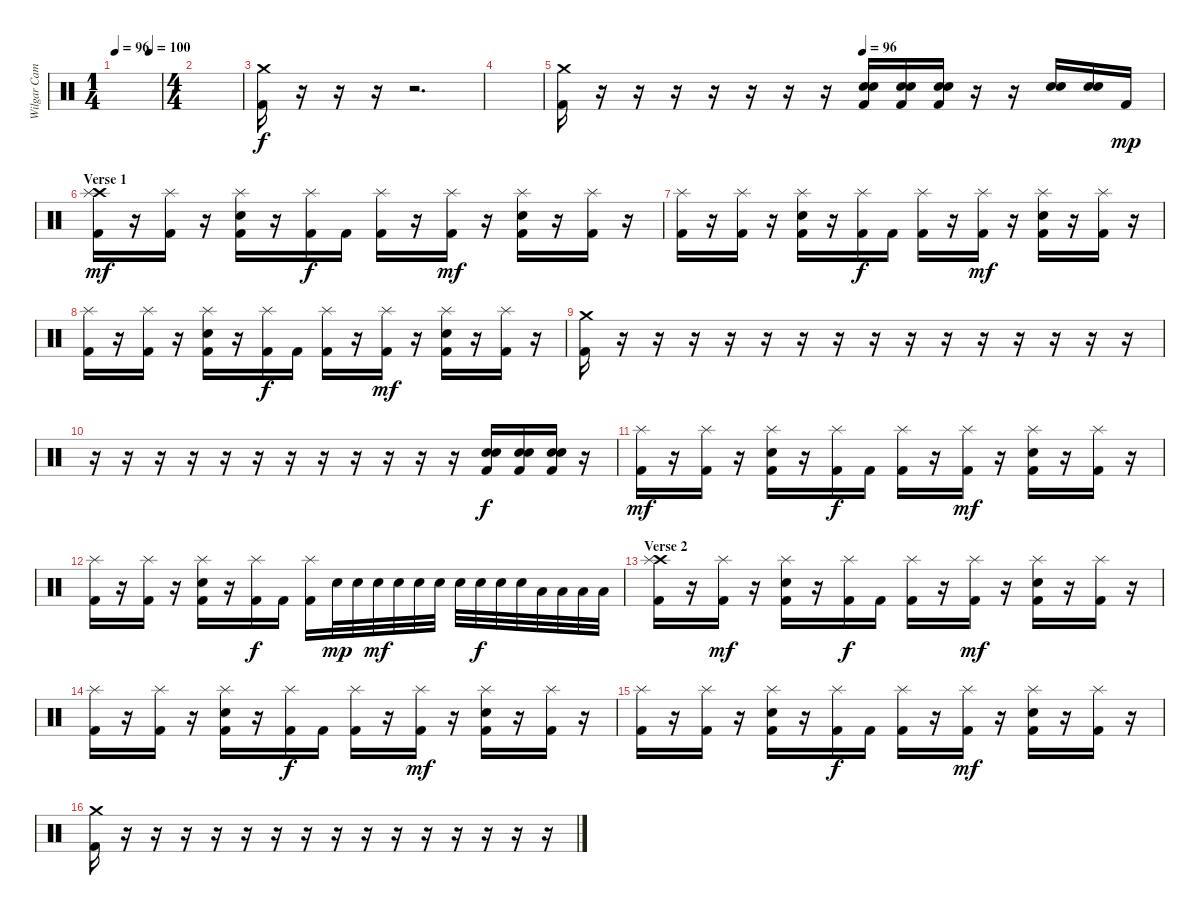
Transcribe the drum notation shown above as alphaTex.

\track ("Wilgar Campbell" "Wilgar Cam") {instrument percussion}
\staff {score}
\articulation defaults
\ts (1 4)
\tempo 96
\tempo (100 0.75)
\tempo 96
\clef neutral
\ks c
|
\ts (4 4)
|
("Crash medium (hit)" "Kick (hit) 2").16 r.16 r.16 r.16 r.2{d} |
|
\tempo (96 0.5)
("Crash medium (hit)" "Kick (hit) 2").16 r.16 r.16 r.16 r.16 r.16 r.16 r.16 ("Electric Snare (hit)" "Snare (hit) 2" "Kick (hit) 2").16{dy f} ("Electric Snare (hit)" "Snare (hit) 2" "Kick (hit) 2").16 ("Electric Snare (hit)" "Snare (hit) 2" "Kick (hit) 2").16 r.16 r.16 ("Electric Snare (hit)" "Electric Snare (hit)").16 ("Electric Snare (hit)" "Electric Snare (hit)").16 "Kick (hit) 2".16{dy mp} |
\section ("" "Verse 1")
("Crash high (hit)" "Splash (hit)" "Kick (hit) 2").16{dy mf} r.16 ("Splash (hit)" "Kick (hit) 2").16 r.16 ("Splash (hit)" "Snare (hit) 2" "Kick (hit) 2").16 r.16 ("Splash (hit)" "Kick (hit) 2").16{dy f} "Kick (hit) 2".16 ("Splash (hit)" "Kick (hit) 2").16 r.16 ("Splash (hit)" "Kick (hit) 2").16{dy mf} r.16 ("Splash (hit)" "Snare (hit) 2" "Kick (hit) 2").16 r.16 ("Splash (hit)" "Kick (hit) 2").16 r.16 |
("Splash (hit)" "Kick (hit) 2").16 r.16 ("Splash (hit)" "Kick (hit) 2").16 r.16 ("Splash (hit)" "Snare (hit) 2" "Kick (hit) 2").16 r.16 ("Splash (hit)" "Kick (hit) 2").16{dy f} "Kick (hit) 2".16 ("Splash (hit)" "Kick (hit) 2").16 r.16 ("Splash (hit)" "Kick (hit) 2").16{dy mf} r.16 ("Splash (hit)" "Snare (hit) 2" "Kick (hit) 2").16 r.16 ("Splash (hit)" "Kick (hit) 2").16 r.16 |
("Splash (hit)" "Kick (hit) 2").16 r.16 ("Splash (hit)" "Kick (hit) 2").16 r.16 ("Splash (hit)" "Snare (hit) 2" "Kick (hit) 2").16 r.16 ("Splash (hit)" "Kick (hit) 2").16{dy f} "Kick (hit) 2".16 ("Splash (hit)" "Kick (hit) 2").16 r.16 ("Splash (hit)" "Kick (hit) 2").16{dy mf} r.16 ("Splash (hit)" "Snare (hit) 2" "Kick (hit) 2").16 r.16 ("Splash (hit)" "Kick (hit) 2").16 r.16 |
("Crash medium (hit)" "Kick (hit) 2").16 r.16 r.16 r.16 r.16 r.16 r.16 r.16 r.16 r.16 r.16 r.16 r.16 r.16 r.16 r.16 |
r.16 r.16 r.16 r.16 r.16 r.16 r.16 r.16 r.16 r.16 r.16 r.16 ("Electric Snare (hit)" "Snare (hit) 2" "Kick (hit) 2").16{dy f} ("Electric Snare (hit)" "Snare (hit) 2" "Kick (hit) 2").16 ("Electric Snare (hit)" "Snare (hit) 2" "Kick (hit) 2").16 r.16 |
("Splash (hit)" "Kick (hit) 2").16{dy mf} r.16 ("Splash (hit)" "Kick (hit) 2").16 r.16 ("Splash (hit)" "Snare (hit) 2" "Kick (hit) 2").16 r.16 ("Splash (hit)" "Kick (hit) 2").16{dy f} "Kick (hit) 2".16 ("Splash (hit)" "Kick (hit) 2").16 r.16 ("Splash (hit)" "Kick (hit) 2").16{dy mf} r.16 ("Splash (hit)" "Snare (hit) 2" "Kick (hit) 2").16 r.16 ("Splash (hit)" "Kick (hit) 2").16 r.16 |
("Splash (hit)" "Kick (hit) 2").16 r.16 ("Splash (hit)" "Kick (hit) 2").16 r.16 ("Splash (hit)" "Snare (hit) 2" "Kick (hit) 2").16 r.16 ("Splash (hit)" "Kick (hit) 2").16{dy f} "Kick (hit) 2".16 ("Splash (hit)" "Kick (hit) 2").16 "Snare (hit) 2".32{dy mp} "Snare (hit) 2".32 "Snare (hit) 2".32{dy mf} "Snare (hit) 2".32 "Snare (hit) 2".32 "Snare (hit) 2".32 "Electric Snare (hit)".32 "Snare (hit) 2".32{dy f} "Snare (hit) 2".32 "Snare (hit) 2".32 "Low Tom (hit)".32 "Low Tom (hit)".32 "Low Tom (hit)".32 "Low Tom (hit)".32 |
\section ("" "Verse 2")
("Crash high (hit)" "Splash (hit)" "Kick (hit) 2").16 r.16 ("Splash (hit)" "Kick (hit) 2").16{dy mf} r.16 ("Splash (hit)" "Snare (hit) 2" "Kick (hit) 2").16 r.16 ("Splash (hit)" "Kick (hit) 2").16{dy f} "Kick (hit) 2".16 ("Splash (hit)" "Kick (hit) 2").16 r.16 ("Splash (hit)" "Kick (hit) 2").16{dy mf} r.16 ("Splash (hit)" "Snare (hit) 2" "Kick (hit) 2").16 r.16 ("Splash (hit)" "Kick (hit) 2").16 r.16 |
("Splash (hit)" "Kick (hit) 2").16 r.16 ("Splash (hit)" "Kick (hit) 2").16 r.16 ("Splash (hit)" "Snare (hit) 2" "Kick (hit) 2").16 r.16 ("Splash (hit)" "Kick (hit) 2").16{dy f} "Kick (hit) 2".16 ("Splash (hit)" "Kick (hit) 2").16 r.16 ("Splash (hit)" "Kick (hit) 2").16{dy mf} r.16 ("Splash (hit)" "Snare (hit) 2" "Kick (hit) 2").16 r.16 ("Splash (hit)" "Kick (hit) 2").16 r.16 |
("Splash (hit)" "Kick (hit) 2").16 r.16 ("Splash (hit)" "Kick (hit) 2").16 r.16 ("Splash (hit)" "Snare (hit) 2" "Kick (hit) 2").16 r.16 ("Splash (hit)" "Kick (hit) 2").16{dy f} "Kick (hit) 2".16 ("Splash (hit)" "Kick (hit) 2").16 r.16 ("Splash (hit)" "Kick (hit) 2").16{dy mf} r.16 ("Splash (hit)" "Snare (hit) 2" "Kick (hit) 2").16 r.16 ("Splash (hit)" "Kick (hit) 2").16 r.16 |
("Crash medium (hit)" "Kick (hit) 2").16 r.16 r.16 r.16 r.16 r.16 r.16 r.16 r.16 r.16 r.16 r.16 r.16 r.16 r.16 r.16
